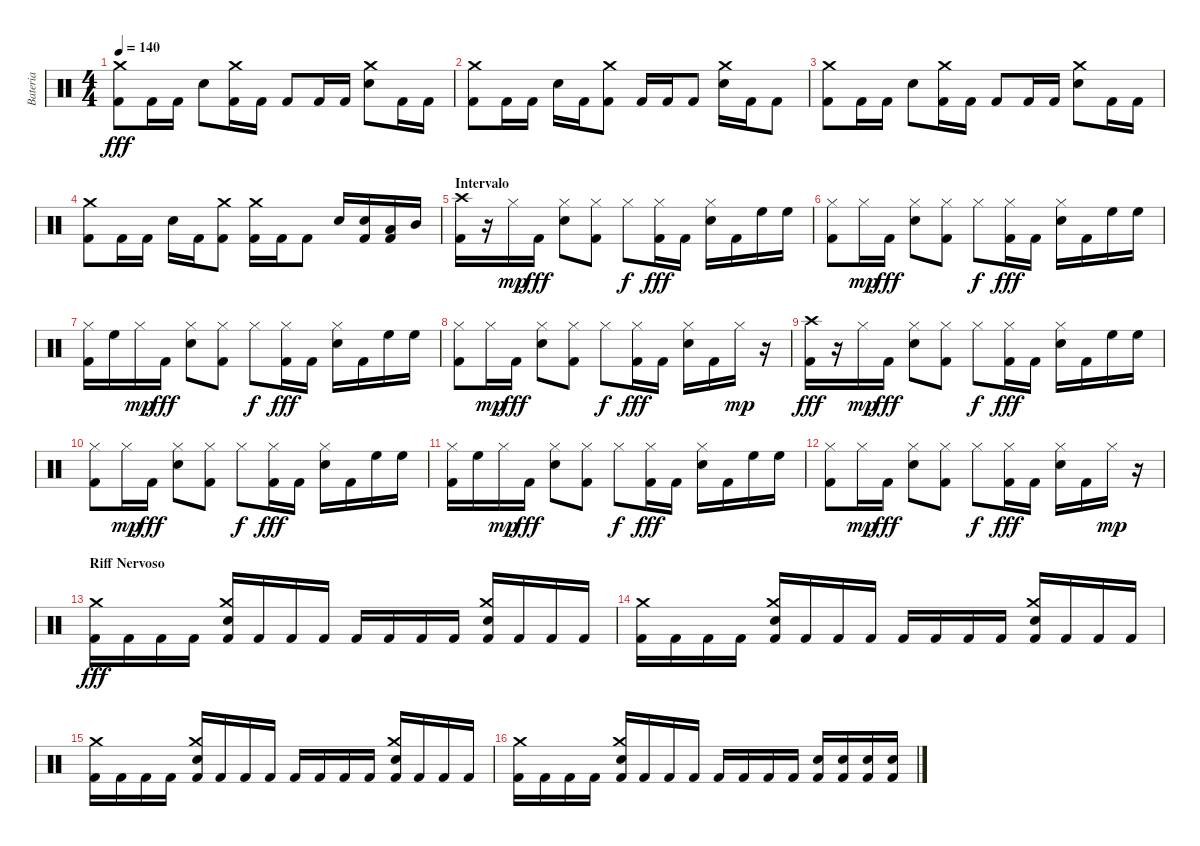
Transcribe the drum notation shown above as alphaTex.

\track ("Bateria" "Bateria") {instrument percussion}
\staff {score}
\articulation defaults
\ts (4 4)
\tempo 140
\clef neutral
\ks c
("Kick (hit) 2" "Crash medium (hit)").8{dy fff} "Kick (hit) 2".16 "Kick (hit) 2".16 "Metronome (bell)".8 ("Kick (hit) 2" "Crash medium (hit)").16 "Kick (hit) 2".16 "Kick (hit) 2".8 "Kick (hit) 2".16 "Kick (hit) 2".16 ("Metronome (bell)" "Crash medium (hit)").8 "Kick (hit) 2".16 "Kick (hit) 2".16 |
("Kick (hit) 2" "Crash medium (hit)").8 "Kick (hit) 2".16 "Kick (hit) 2".16 "Metronome (bell)".16 "Kick (hit) 2".16 ("Kick (hit) 2" "Crash medium (hit)").8 "Kick (hit) 2".16 "Kick (hit) 2".16 "Kick (hit) 2".8 ("Metronome (bell)" "Crash medium (hit)").16 "Kick (hit) 2".16 "Kick (hit) 2".8 |
("Kick (hit) 2" "Crash medium (hit)").8 "Kick (hit) 2".16 "Kick (hit) 2".16 "Metronome (bell)".8 ("Kick (hit) 2" "Crash medium (hit)").16 "Kick (hit) 2".16 "Kick (hit) 2".8 "Kick (hit) 2".16 "Kick (hit) 2".16 ("Metronome (bell)" "Crash medium (hit)").8 "Kick (hit) 2".16 "Kick (hit) 2".16 |
("Kick (hit) 2" "Crash medium (hit)").8 "Kick (hit) 2".16 "Kick (hit) 2".16 "Metronome (bell)".16 "Kick (hit) 2".16 ("Kick (hit) 2" "Crash medium (hit)").8 ("Kick (hit) 2" "Crash medium (hit)").16 "Kick (hit) 2".16 "Kick (hit) 2".8 "Metronome (bell)".16 ("Kick (hit) 2" "Metronome (bell)").16 ("Kick (hit) 2" "Low Tom (hit)").16 "Mid Tom (hit)".16 |
\section ("" "Intervalo")
("Crash high (hit)" "Kick (hit) 2").16 r.16 "Hi-Hat (closed)".16{dy mp} "Kick (hit) 2".16{dy fff} ("Hi-Hat (closed)" "Electric Snare (hit)").8 ("Hi-Hat (closed)" "Kick (hit) 2").8 "Hi-Hat (closed)".8{dy f} ("Hi-Hat (closed)" "Kick (hit) 2").16{dy fff} "Kick (hit) 2".16 ("Hi-Hat (closed)" "Electric Snare (hit)").16 "Kick (hit) 2".16 "High Floor Tom (hit)".16 "High Floor Tom (hit)".16 |
("Hi-Hat (closed)" "Kick (hit) 2").8 "Hi-Hat (closed)".16{dy mp} "Kick (hit) 2".16{dy fff} ("Hi-Hat (closed)" "Electric Snare (hit)").8 ("Hi-Hat (closed)" "Kick (hit) 2").8 "Hi-Hat (closed)".8{dy f} ("Hi-Hat (closed)" "Kick (hit) 2").16{dy fff} "Kick (hit) 2".16 ("Hi-Hat (closed)" "Electric Snare (hit)").16 "Kick (hit) 2".16 "High Floor Tom (hit)".16 "High Floor Tom (hit)".16 |
("Hi-Hat (closed)" "Kick (hit) 2").16 "High Floor Tom (hit)".16 "Hi-Hat (closed)".16{dy mp} "Kick (hit) 2".16{dy fff} ("Hi-Hat (closed)" "Electric Snare (hit)").8 ("Hi-Hat (closed)" "Kick (hit) 2").8 "Hi-Hat (closed)".8{dy f} ("Hi-Hat (closed)" "Kick (hit) 2").16{dy fff} "Kick (hit) 2".16 ("Hi-Hat (closed)" "Electric Snare (hit)").16 "Kick (hit) 2".16 "High Floor Tom (hit)".16 "High Floor Tom (hit)".16 |
("Hi-Hat (closed)" "Kick (hit) 2").8 "Hi-Hat (closed)".16{dy mp} "Kick (hit) 2".16{dy fff} ("Hi-Hat (closed)" "Electric Snare (hit)").8 ("Hi-Hat (closed)" "Kick (hit) 2").8 "Hi-Hat (closed)".8{dy f} ("Hi-Hat (closed)" "Kick (hit) 2").16{dy fff} "Kick (hit) 2".16 ("Hi-Hat (closed)" "Electric Snare (hit)").16 "Kick (hit) 2".16 "Hi-Hat (closed)".16{dy mp} r.16 |
("Crash high (hit)" "Kick (hit) 2").16{dy fff} r.16 "Hi-Hat (closed)".16{dy mp} "Kick (hit) 2".16{dy fff} ("Hi-Hat (closed)" "Electric Snare (hit)").8 ("Hi-Hat (closed)" "Kick (hit) 2").8 "Hi-Hat (closed)".8{dy f} ("Hi-Hat (closed)" "Kick (hit) 2").16{dy fff} "Kick (hit) 2".16 ("Hi-Hat (closed)" "Electric Snare (hit)").16 "Kick (hit) 2".16 "High Floor Tom (hit)".16 "High Floor Tom (hit)".16 |
("Hi-Hat (closed)" "Kick (hit) 2").8 "Hi-Hat (closed)".16{dy mp} "Kick (hit) 2".16{dy fff} ("Hi-Hat (closed)" "Electric Snare (hit)").8 ("Hi-Hat (closed)" "Kick (hit) 2").8 "Hi-Hat (closed)".8{dy f} ("Hi-Hat (closed)" "Kick (hit) 2").16{dy fff} "Kick (hit) 2".16 ("Hi-Hat (closed)" "Electric Snare (hit)").16 "Kick (hit) 2".16 "High Floor Tom (hit)".16 "High Floor Tom (hit)".16 |
("Hi-Hat (closed)" "Kick (hit) 2").16 "High Floor Tom (hit)".16 "Hi-Hat (closed)".16{dy mp} "Kick (hit) 2".16{dy fff} ("Hi-Hat (closed)" "Electric Snare (hit)").8 ("Hi-Hat (closed)" "Kick (hit) 2").8 "Hi-Hat (closed)".8{dy f} ("Hi-Hat (closed)" "Kick (hit) 2").16{dy fff} "Kick (hit) 2".16 ("Hi-Hat (closed)" "Electric Snare (hit)").16 "Kick (hit) 2".16 "High Floor Tom (hit)".16 "High Floor Tom (hit)".16 |
("Hi-Hat (closed)" "Kick (hit) 2").8 "Hi-Hat (closed)".16{dy mp} "Kick (hit) 2".16{dy fff} ("Hi-Hat (closed)" "Electric Snare (hit)").8 ("Hi-Hat (closed)" "Kick (hit) 2").8 "Hi-Hat (closed)".8{dy f} ("Hi-Hat (closed)" "Kick (hit) 2").16{dy fff} "Kick (hit) 2".16 ("Hi-Hat (closed)" "Electric Snare (hit)").16 "Kick (hit) 2".16 "Hi-Hat (closed)".16{dy mp} r.16 |
\section ("" "Riff Nervoso")
("Kick (hit) 2" "Crash medium (hit)").16{dy fff} "Kick (hit) 2".16 "Kick (hit) 2".16 "Kick (hit) 2".16 ("Kick (hit) 2" "Metronome (bell)" "Crash medium (hit)").16 "Kick (hit) 2".16 "Kick (hit) 2".16 "Kick (hit) 2".16 "Kick (hit) 2".16 "Kick (hit) 2".16 "Kick (hit) 2".16 "Kick (hit) 2".16 ("Kick (hit) 2" "Metronome (bell)" "Crash medium (hit)").16 "Kick (hit) 2".16 "Kick (hit) 2".16 "Kick (hit) 2".16 |
("Kick (hit) 2" "Crash medium (hit)").16 "Kick (hit) 2".16 "Kick (hit) 2".16 "Kick (hit) 2".16 ("Kick (hit) 2" "Metronome (bell)" "Crash medium (hit)").16 "Kick (hit) 2".16 "Kick (hit) 2".16 "Kick (hit) 2".16 "Kick (hit) 2".16 "Kick (hit) 2".16 "Kick (hit) 2".16 "Kick (hit) 2".16 ("Kick (hit) 2" "Metronome (bell)" "Crash medium (hit)").16 "Kick (hit) 2".16 "Kick (hit) 2".16 "Kick (hit) 2".16 |
("Kick (hit) 2" "Crash medium (hit)").16 "Kick (hit) 2".16 "Kick (hit) 2".16 "Kick (hit) 2".16 ("Kick (hit) 2" "Metronome (bell)" "Crash medium (hit)").16 "Kick (hit) 2".16 "Kick (hit) 2".16 "Kick (hit) 2".16 "Kick (hit) 2".16 "Kick (hit) 2".16 "Kick (hit) 2".16 "Kick (hit) 2".16 ("Kick (hit) 2" "Metronome (bell)" "Crash medium (hit)").16 "Kick (hit) 2".16 "Kick (hit) 2".16 "Kick (hit) 2".16 |
("Kick (hit) 2" "Crash medium (hit)").16 "Kick (hit) 2".16 "Kick (hit) 2".16 "Kick (hit) 2".16 ("Kick (hit) 2" "Metronome (bell)" "Crash medium (hit)").16 "Kick (hit) 2".16 "Kick (hit) 2".16 "Kick (hit) 2".16 "Kick (hit) 2".16 "Kick (hit) 2".16 "Kick (hit) 2".16 "Kick (hit) 2".16 ("Kick (hit) 2" "Metronome (bell)").16 ("Kick (hit) 2" "Metronome (bell)").16 ("Kick (hit) 2" "Metronome (bell)").16 ("Kick (hit) 2" "Metronome (bell)").16
